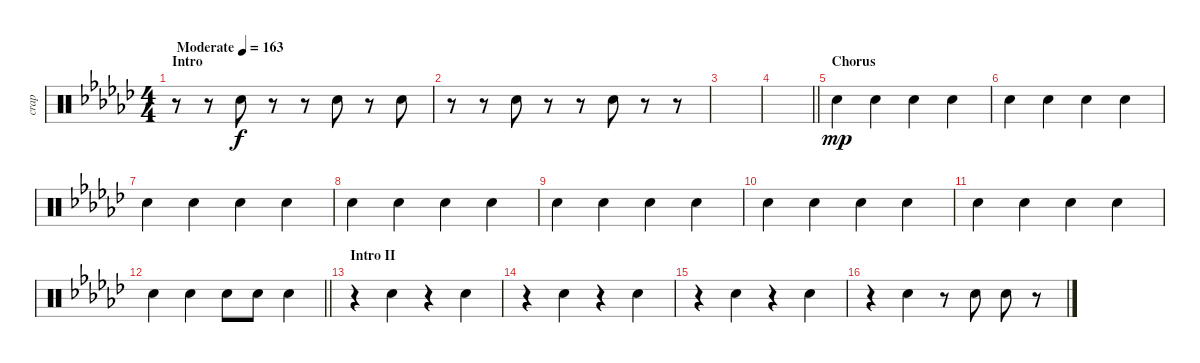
\track ("crap" "crap") {mute instrument percussion}
\staff {score}
\articulation defaults
\ts (4 4)
\section ("" "Intro")
\tempo (163 "Moderate")
\clef neutral
\ks gb
r.8{dy f} r.8 "Hand Clap (hit)".8 r.8 r.8 "Hand Clap (hit)".8 r.8 "Hand Clap (hit)".8 |
r.8 r.8 "Hand Clap (hit)".8 r.8 r.8 "Hand Clap (hit)".8 r.8 r.8 |
|
\barLineRight lightlight
|
\section ("" "Chorus")
"Hand Clap (hit)".4{dy mp} "Hand Clap (hit)".4 "Hand Clap (hit)".4 "Hand Clap (hit)".4 |
"Hand Clap (hit)".4 "Hand Clap (hit)".4 "Hand Clap (hit)".4 "Hand Clap (hit)".4 |
"Hand Clap (hit)".4 "Hand Clap (hit)".4 "Hand Clap (hit)".4 "Hand Clap (hit)".4 |
"Hand Clap (hit)".4 "Hand Clap (hit)".4 "Hand Clap (hit)".4 "Hand Clap (hit)".4 |
"Hand Clap (hit)".4 "Hand Clap (hit)".4 "Hand Clap (hit)".4 "Hand Clap (hit)".4 |
"Hand Clap (hit)".4 "Hand Clap (hit)".4 "Hand Clap (hit)".4 "Hand Clap (hit)".4 |
"Hand Clap (hit)".4 "Hand Clap (hit)".4 "Hand Clap (hit)".4 "Hand Clap (hit)".4 |
\barLineRight lightlight "Hand Clap (hit)".4 "Hand Clap (hit)".4 "Hand Clap (hit)".8 "Hand Clap (hit)".8 "Hand Clap (hit)".4
|
\section ("" "Intro II")
r.4 "Hand Clap (hit)".4 r.4 "Hand Clap (hit)".4 |
r.4 "Hand Clap (hit)".4 r.4 "Hand Clap (hit)".4 |
r.4 "Hand Clap (hit)".4 r.4 "Hand Clap (hit)".4 |
r.4 "Hand Clap (hit)".4 r.8 "Hand Clap (hit)".8 "Hand Clap (hit)".8 r.8
